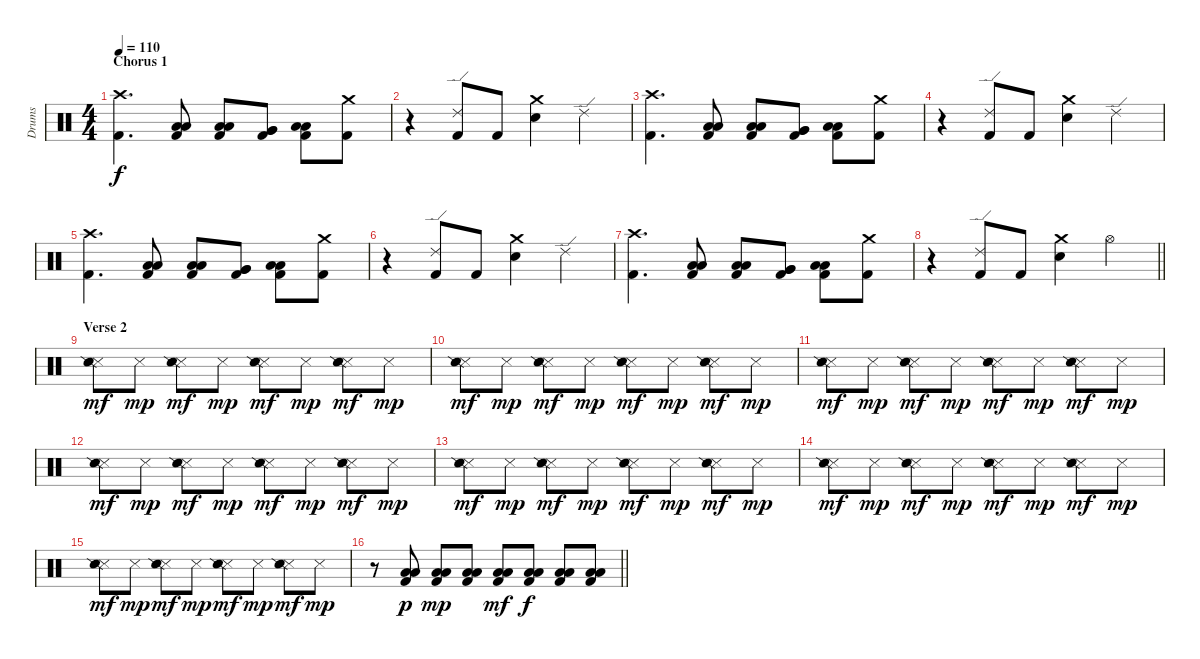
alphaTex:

\track ("Drums" "Drums") {instrument percussion}
\staff {score}
\articulation defaults
\ts (4 4)
\section ("" "Chorus 1")
\tempo 110
\clef neutral
\ks c
("Crash high (hit)" "Kick (hit) 2").4{d dy f} ("Low Tom (hit)" "Low Tom (hit)" "Kick (hit) 2").8{bu 30} ("Low Tom (hit)" "Low Tom (hit)" "Kick (hit) 2").8{bu 30} ("Very Low Tom (hit)" "Very Low Tom (hit)" "Kick (hit) 2").8{bu 30} ("Low Floor Tom (hit)" "Low Floor Tom (hit)" "Kick (hit) 2").8{bu 30} ("Crash medium (hit)" "Kick (hit) 2").8 |
r.4 ("Ride (edge) 2" "Kick (hit) 2").8 "Kick (hit) 2".8 ("Crash medium (hit)" "Electric Snare (hit)").4 "Ride (edge) 2".4 |
("Crash high (hit)" "Kick (hit) 2").4{d} ("Low Tom (hit)" "Low Tom (hit)" "Kick (hit) 2").8{bu 30} ("Low Tom (hit)" "Low Tom (hit)" "Kick (hit) 2").8{bu 30} ("Very Low Tom (hit)" "Very Low Tom (hit)" "Kick (hit) 2").8{bu 30} ("Low Floor Tom (hit)" "Low Floor Tom (hit)" "Kick (hit) 2").8{bu 30} ("Crash medium (hit)" "Kick (hit) 2").8 |
r.4 ("Ride (edge) 2" "Kick (hit) 2").8 "Kick (hit) 2".8 ("Crash medium (hit)" "Electric Snare (hit)").4 "Ride (edge) 2".4 |
("Crash high (hit)" "Kick (hit) 2").4{d} ("Low Tom (hit)" "Low Tom (hit)" "Kick (hit) 2").8{bu 30} ("Low Tom (hit)" "Low Tom (hit)" "Kick (hit) 2").8{bu 30} ("Very Low Tom (hit)" "Very Low Tom (hit)" "Kick (hit) 2").8{bu 30} ("Low Floor Tom (hit)" "Low Floor Tom (hit)" "Kick (hit) 2").8{bu 30} ("Crash medium (hit)" "Kick (hit) 2").8 |
r.4 ("Ride (edge) 2" "Kick (hit) 2").8 "Kick (hit) 2".8 ("Crash medium (hit)" "Electric Snare (hit)").4 "Ride (edge) 2".4 |
("Crash high (hit)" "Kick (hit) 2").4{d} ("Low Tom (hit)" "Low Tom (hit)" "Kick (hit) 2").8{bu 30} ("Low Tom (hit)" "Low Tom (hit)" "Kick (hit) 2").8{bu 30} ("Very Low Tom (hit)" "Very Low Tom (hit)" "Kick (hit) 2").8{bu 30} ("Low Floor Tom (hit)" "Low Floor Tom (hit)" "Kick (hit) 2").8{bu 30} ("Crash medium (hit)" "Kick (hit) 2").8 |
\barLineRight lightlight
r.4 ("Ride (edge) 2" "Kick (hit) 2").8 "Kick (hit) 2".8 ("Crash medium (hit)" "Electric Snare (hit)").4 "Hi-Hat (open)".4 |
\section ("" "Verse 2")
("Snare (side stick) 3" "Snare (side stick) 2").8{dy mf balance 12} "Snare (side stick) 3".8{dy mp balance 4} ("Snare (side stick) 3" "Snare (side stick) 2").8{dy mf} "Snare (side stick) 3".8{dy mp} ("Snare (side stick) 3" "Snare (side stick) 2").8{dy mf} "Snare (side stick) 3".8{dy mp} ("Snare (side stick) 3" "Snare (side stick) 2").8{dy mf} "Snare (side stick) 3".8{dy mp} |
("Snare (side stick) 3" "Snare (side stick) 2").8{dy mf balance 4} "Snare (side stick) 3".8{dy mp} ("Snare (side stick) 3" "Snare (side stick) 2").8{dy mf} "Snare (side stick) 3".8{dy mp} ("Snare (side stick) 3" "Snare (side stick) 2").8{dy mf} "Snare (side stick) 3".8{dy mp} ("Snare (side stick) 3" "Snare (side stick) 2").8{dy mf} "Snare (side stick) 3".8{dy mp} |
("Snare (side stick) 3" "Snare (side stick) 2").8{dy mf balance 12} "Snare (side stick) 3".8{dy mp} ("Snare (side stick) 3" "Snare (side stick) 2").8{dy mf} "Snare (side stick) 3".8{dy mp} ("Snare (side stick) 3" "Snare (side stick) 2").8{dy mf} "Snare (side stick) 3".8{dy mp} ("Snare (side stick) 3" "Snare (side stick) 2").8{dy mf} "Snare (side stick) 3".8{dy mp} |
("Snare (side stick) 3" "Snare (side stick) 2").8{dy mf balance 4} "Snare (side stick) 3".8{dy mp} ("Snare (side stick) 3" "Snare (side stick) 2").8{dy mf} "Snare (side stick) 3".8{dy mp} ("Snare (side stick) 3" "Snare (side stick) 2").8{dy mf} "Snare (side stick) 3".8{dy mp} ("Snare (side stick) 3" "Snare (side stick) 2").8{dy mf} "Snare (side stick) 3".8{dy mp} |
("Snare (side stick) 3" "Snare (side stick) 2").8{dy mf balance 12} "Snare (side stick) 3".8{dy mp} ("Snare (side stick) 3" "Snare (side stick) 2").8{dy mf} "Snare (side stick) 3".8{dy mp} ("Snare (side stick) 3" "Snare (side stick) 2").8{dy mf} "Snare (side stick) 3".8{dy mp} ("Snare (side stick) 3" "Snare (side stick) 2").8{dy mf} "Snare (side stick) 3".8{dy mp} |
("Snare (side stick) 3" "Snare (side stick) 2").8{dy mf balance 4} "Snare (side stick) 3".8{dy mp} ("Snare (side stick) 3" "Snare (side stick) 2").8{dy mf} "Snare (side stick) 3".8{dy mp} ("Snare (side stick) 3" "Snare (side stick) 2").8{dy mf} "Snare (side stick) 3".8{dy mp} ("Snare (side stick) 3" "Snare (side stick) 2").8{dy mf} "Snare (side stick) 3".8{dy mp} |
("Snare (side stick) 3" "Snare (side stick) 2").8{dy mf balance 12} "Snare (side stick) 3".8{dy mp} ("Snare (side stick) 3" "Snare (side stick) 2").8{dy mf} "Snare (side stick) 3".8{dy mp} ("Snare (side stick) 3" "Snare (side stick) 2").8{dy mf} "Snare (side stick) 3".8{dy mp} ("Snare (side stick) 3" "Snare (side stick) 2").8{dy mf} "Snare (side stick) 3".8{dy mp} |
\barLineRight lightlight
r.8{balance 8} ("Low Tom (hit)" "Low Floor Tom (hit)" "Kick (hit) 2").8{dy p} ("Low Tom (hit)" "Low Floor Tom (hit)" "Kick (hit) 2").8{dy mp} ("Low Tom (hit)" "Low Floor Tom (hit)" "Kick (hit) 2").8 ("Low Tom (hit)" "Low Floor Tom (hit)" "Kick (hit) 2").8{dy mf} ("Low Tom (hit)" "Low Floor Tom (hit)" "Kick (hit) 2").8{dy f} ("Low Tom (hit)" "Low Floor Tom (hit)" "Kick (hit) 2").8 ("Low Tom (hit)" "Low Floor Tom (hit)" "Kick (hit) 2").8
